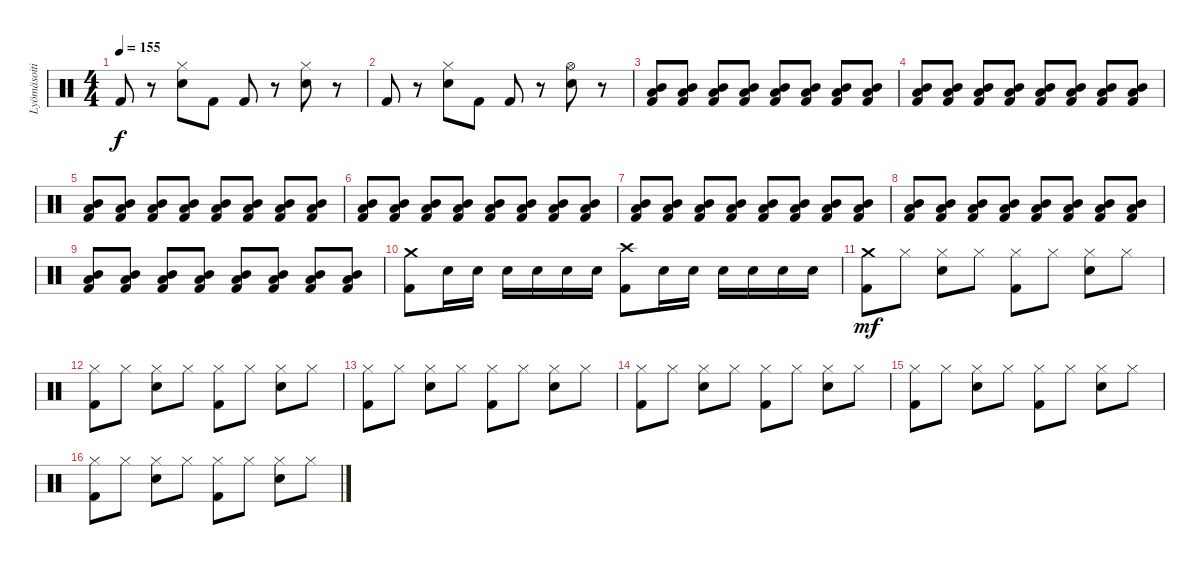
\track ("Lyömäsoitin" "Lyömäsoiti") {instrument percussion}
\staff {score}
\articulation defaults
\ts (4 4)
\tempo 155
\clef neutral
\ks c "Kick (hit) 2".8{dy f}
r.8 ("Hi-Hat (closed)" "Snare (hit) 2").8 "Kick (hit) 2".8 "Kick (hit) 2".8 r.8 ("Hi-Hat (closed)" "Snare (hit) 2").8 r.8 |
"Kick (hit) 2".8 r.8 ("Hi-Hat (closed)" "Snare (hit) 2").8 "Kick (hit) 2".8 "Kick (hit) 2".8 r.8 ("Hi-Hat (open)" "Snare (hit) 2").8 r.8 |
("Mid Tom (hit)" "Low Tom (hit)" "Kick (hit) 2").8 ("Mid Tom (hit)" "Low Tom (hit)" "Kick (hit) 2").8 ("Mid Tom (hit)" "Low Tom (hit)" "Kick (hit) 2").8 ("Mid Tom (hit)" "Low Tom (hit)" "Kick (hit) 2").8 ("Mid Tom (hit)" "Low Tom (hit)" "Kick (hit) 2").8 ("Mid Tom (hit)" "Low Tom (hit)" "Kick (hit) 2").8 ("Mid Tom (hit)" "Low Tom (hit)" "Kick (hit) 2").8 ("Mid Tom (hit)" "Low Tom (hit)" "Kick (hit) 2").8 |
("Mid Tom (hit)" "Low Tom (hit)" "Kick (hit) 2").8 ("Mid Tom (hit)" "Low Tom (hit)" "Kick (hit) 2").8 ("Mid Tom (hit)" "Low Tom (hit)" "Kick (hit) 2").8 ("Mid Tom (hit)" "Low Tom (hit)" "Kick (hit) 2").8 ("Mid Tom (hit)" "Low Tom (hit)" "Kick (hit) 2").8 ("Mid Tom (hit)" "Low Tom (hit)" "Kick (hit) 2").8 ("Mid Tom (hit)" "Low Tom (hit)" "Kick (hit) 2").8 ("Mid Tom (hit)" "Low Tom (hit)" "Kick (hit) 2").8 |
("Mid Tom (hit)" "Low Tom (hit)" "Kick (hit) 2").8 ("Mid Tom (hit)" "Low Tom (hit)" "Kick (hit) 2").8 ("Mid Tom (hit)" "Low Tom (hit)" "Kick (hit) 2").8 ("Mid Tom (hit)" "Low Tom (hit)" "Kick (hit) 2").8 ("Mid Tom (hit)" "Low Tom (hit)" "Kick (hit) 2").8 ("Mid Tom (hit)" "Low Tom (hit)" "Kick (hit) 2").8 ("Mid Tom (hit)" "Low Tom (hit)" "Kick (hit) 2").8 ("Mid Tom (hit)" "Low Tom (hit)" "Kick (hit) 2").8 |
("Mid Tom (hit)" "Low Tom (hit)" "Kick (hit) 2").8 ("Mid Tom (hit)" "Low Tom (hit)" "Kick (hit) 2").8 ("Mid Tom (hit)" "Low Tom (hit)" "Kick (hit) 2").8 ("Mid Tom (hit)" "Low Tom (hit)" "Kick (hit) 2").8 ("Mid Tom (hit)" "Low Tom (hit)" "Kick (hit) 2").8 ("Mid Tom (hit)" "Low Tom (hit)" "Kick (hit) 2").8 ("Mid Tom (hit)" "Low Tom (hit)" "Kick (hit) 2").8 ("Mid Tom (hit)" "Low Tom (hit)" "Kick (hit) 2").8 |
("Mid Tom (hit)" "Low Tom (hit)" "Kick (hit) 2").8 ("Mid Tom (hit)" "Low Tom (hit)" "Kick (hit) 2").8 ("Mid Tom (hit)" "Low Tom (hit)" "Kick (hit) 2").8 ("Mid Tom (hit)" "Low Tom (hit)" "Kick (hit) 2").8 ("Mid Tom (hit)" "Low Tom (hit)" "Kick (hit) 2").8 ("Mid Tom (hit)" "Low Tom (hit)" "Kick (hit) 2").8 ("Mid Tom (hit)" "Low Tom (hit)" "Kick (hit) 2").8 ("Mid Tom (hit)" "Low Tom (hit)" "Kick (hit) 2").8 |
("Mid Tom (hit)" "Low Tom (hit)" "Kick (hit) 2").8 ("Mid Tom (hit)" "Low Tom (hit)" "Kick (hit) 2").8 ("Mid Tom (hit)" "Low Tom (hit)" "Kick (hit) 2").8 ("Mid Tom (hit)" "Low Tom (hit)" "Kick (hit) 2").8 ("Mid Tom (hit)" "Low Tom (hit)" "Kick (hit) 2").8 ("Mid Tom (hit)" "Low Tom (hit)" "Kick (hit) 2").8 ("Mid Tom (hit)" "Low Tom (hit)" "Kick (hit) 2").8 ("Mid Tom (hit)" "Low Tom (hit)" "Kick (hit) 2").8 |
("Mid Tom (hit)" "Low Tom (hit)" "Kick (hit) 2").8 ("Mid Tom (hit)" "Low Tom (hit)" "Kick (hit) 2").8 ("Mid Tom (hit)" "Low Tom (hit)" "Kick (hit) 2").8 ("Mid Tom (hit)" "Low Tom (hit)" "Kick (hit) 2").8 ("Mid Tom (hit)" "Low Tom (hit)" "Kick (hit) 2").8 ("Mid Tom (hit)" "Low Tom (hit)" "Kick (hit) 2").8 ("Mid Tom (hit)" "Low Tom (hit)" "Kick (hit) 2").8 ("Mid Tom (hit)" "Low Tom (hit)" "Kick (hit) 2").8 |
("Crash medium (hit)" "Kick (hit) 2").8 "Snare (hit) 2".16 "Snare (hit) 2".16 "Snare (hit) 2".16 "Snare (hit) 2".16 "Snare (hit) 2".16 "Snare (hit) 2".16 ("Crash high (hit)" "Kick (hit) 2").8 "Snare (hit) 2".16 "Snare (hit) 2".16 "Snare (hit) 2".16 "Snare (hit) 2".16 "Snare (hit) 2".16 "Snare (hit) 2".16 |
("Crash medium (hit)" "Kick (hit) 2").8{dy mf} "Hi-Hat (closed)".8 ("Hi-Hat (closed)" "Snare (hit) 2").8 "Hi-Hat (closed)".8 ("Hi-Hat (closed)" "Kick (hit) 2").8 "Hi-Hat (closed)".8 ("Hi-Hat (closed)" "Snare (hit) 2").8 "Hi-Hat (closed)".8 |
("Hi-Hat (closed)" "Kick (hit) 2").8 "Hi-Hat (closed)".8 ("Hi-Hat (closed)" "Snare (hit) 2").8 "Hi-Hat (closed)".8 ("Hi-Hat (closed)" "Kick (hit) 2").8 "Hi-Hat (closed)".8 ("Hi-Hat (closed)" "Snare (hit) 2").8 "Hi-Hat (closed)".8 |
("Hi-Hat (closed)" "Kick (hit) 2").8 "Hi-Hat (closed)".8 ("Hi-Hat (closed)" "Snare (hit) 2").8 "Hi-Hat (closed)".8 ("Hi-Hat (closed)" "Kick (hit) 2").8 "Hi-Hat (closed)".8 ("Hi-Hat (closed)" "Snare (hit) 2").8 "Hi-Hat (closed)".8 |
("Hi-Hat (closed)" "Kick (hit) 2").8 "Hi-Hat (closed)".8 ("Hi-Hat (closed)" "Snare (hit) 2").8 "Hi-Hat (closed)".8 ("Hi-Hat (closed)" "Kick (hit) 2").8 "Hi-Hat (closed)".8 ("Hi-Hat (closed)" "Snare (hit) 2").8 "Hi-Hat (closed)".8 |
("Hi-Hat (closed)" "Kick (hit) 2").8 "Hi-Hat (closed)".8 ("Hi-Hat (closed)" "Snare (hit) 2").8 "Hi-Hat (closed)".8 ("Hi-Hat (closed)" "Kick (hit) 2").8 "Hi-Hat (closed)".8 ("Hi-Hat (closed)" "Snare (hit) 2").8 "Hi-Hat (closed)".8 |
("Hi-Hat (closed)" "Kick (hit) 2").8 "Hi-Hat (closed)".8 ("Hi-Hat (closed)" "Snare (hit) 2").8 "Hi-Hat (closed)".8 ("Hi-Hat (closed)" "Kick (hit) 2").8 "Hi-Hat (closed)".8 ("Hi-Hat (closed)" "Snare (hit) 2").8 "Hi-Hat (closed)".8
